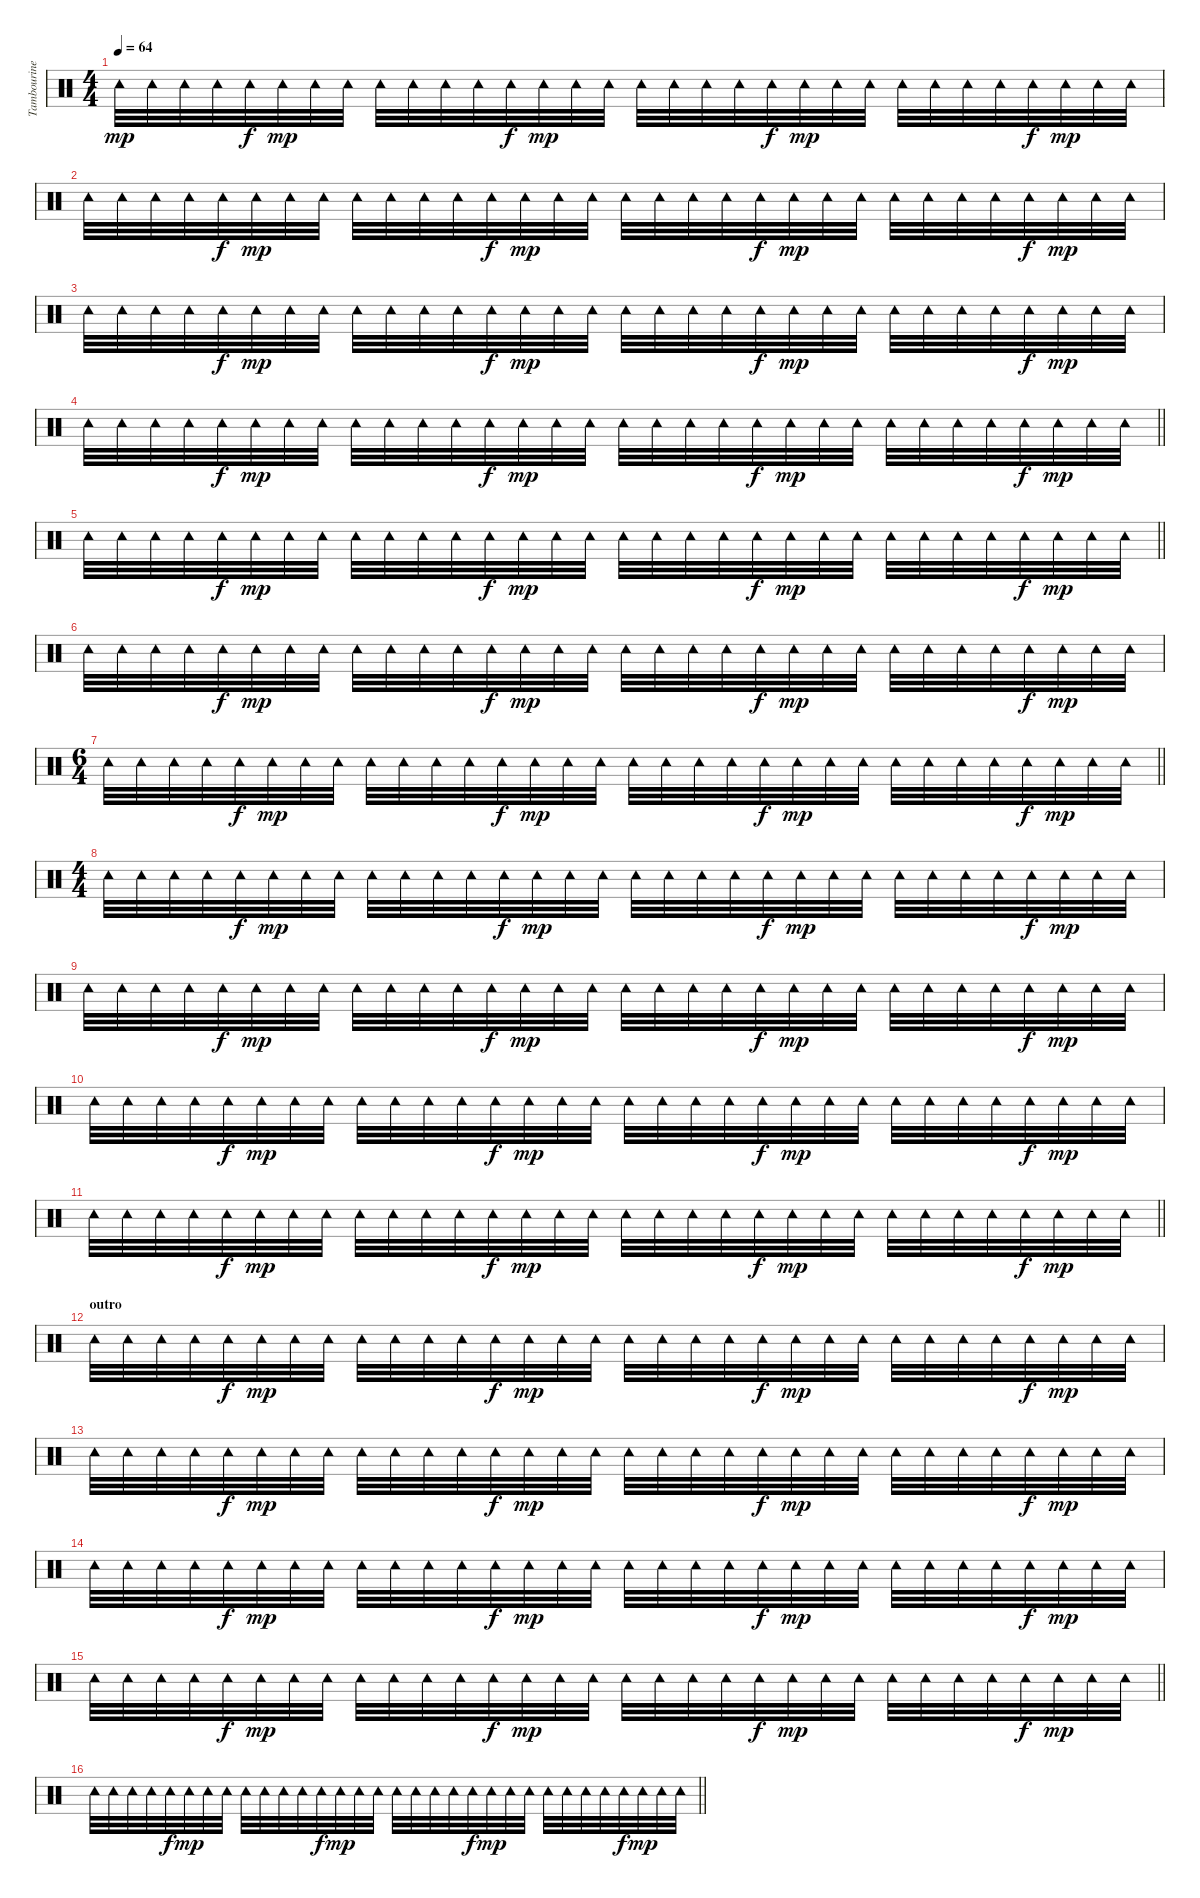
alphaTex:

\track ("Tambourine" "Tambourine") {instrument percussion}
\staff {score}
\articulation defaults
\ts (4 4)
\tempo 64
\clef neutral
\ks c "Tambourine (hit)".32{dy mp} "Tambourine (hit)".32 "Tambourine (hit)".32 "Tambourine (hit)".32 "Tambourine (hit)".32{dy f} "Tambourine (hit)".32{dy mp} "Tambourine (hit)".32 "Tambourine (hit)".32 "Tambourine (hit)".32 "Tambourine (hit)".32 "Tambourine (hit)".32 "Tambourine (hit)".32 "Tambourine (hit)".32{dy f} "Tambourine (hit)".32{dy mp} "Tambourine (hit)".32 "Tambourine (hit)".32 "Tambourine (hit)".32 "Tambourine (hit)".32 "Tambourine (hit)".32 "Tambourine (hit)".32 "Tambourine (hit)".32{dy f} "Tambourine (hit)".32{dy mp} "Tambourine (hit)".32 "Tambourine (hit)".32 "Tambourine (hit)".32 "Tambourine (hit)".32 "Tambourine (hit)".32 "Tambourine (hit)".32 "Tambourine (hit)".32{dy f} "Tambourine (hit)".32{dy mp} "Tambourine (hit)".32 "Tambourine (hit)".32
|
"Tambourine (hit)".32 "Tambourine (hit)".32 "Tambourine (hit)".32 "Tambourine (hit)".32 "Tambourine (hit)".32{dy f} "Tambourine (hit)".32{dy mp} "Tambourine (hit)".32 "Tambourine (hit)".32 "Tambourine (hit)".32 "Tambourine (hit)".32 "Tambourine (hit)".32 "Tambourine (hit)".32 "Tambourine (hit)".32{dy f} "Tambourine (hit)".32{dy mp} "Tambourine (hit)".32 "Tambourine (hit)".32 "Tambourine (hit)".32 "Tambourine (hit)".32 "Tambourine (hit)".32 "Tambourine (hit)".32 "Tambourine (hit)".32{dy f} "Tambourine (hit)".32{dy mp} "Tambourine (hit)".32 "Tambourine (hit)".32 "Tambourine (hit)".32 "Tambourine (hit)".32 "Tambourine (hit)".32 "Tambourine (hit)".32 "Tambourine (hit)".32{dy f} "Tambourine (hit)".32{dy mp} "Tambourine (hit)".32 "Tambourine (hit)".32 |
"Tambourine (hit)".32 "Tambourine (hit)".32 "Tambourine (hit)".32 "Tambourine (hit)".32 "Tambourine (hit)".32{dy f} "Tambourine (hit)".32{dy mp} "Tambourine (hit)".32 "Tambourine (hit)".32 "Tambourine (hit)".32 "Tambourine (hit)".32 "Tambourine (hit)".32 "Tambourine (hit)".32 "Tambourine (hit)".32{dy f} "Tambourine (hit)".32{dy mp} "Tambourine (hit)".32 "Tambourine (hit)".32 "Tambourine (hit)".32 "Tambourine (hit)".32 "Tambourine (hit)".32 "Tambourine (hit)".32 "Tambourine (hit)".32{dy f} "Tambourine (hit)".32{dy mp} "Tambourine (hit)".32 "Tambourine (hit)".32 "Tambourine (hit)".32 "Tambourine (hit)".32 "Tambourine (hit)".32 "Tambourine (hit)".32 "Tambourine (hit)".32{dy f} "Tambourine (hit)".32{dy mp} "Tambourine (hit)".32 "Tambourine (hit)".32 |
\barLineRight lightlight "Tambourine (hit)".32 "Tambourine (hit)".32 "Tambourine (hit)".32 "Tambourine (hit)".32 "Tambourine (hit)".32{dy f} "Tambourine (hit)".32{dy mp} "Tambourine (hit)".32 "Tambourine (hit)".32 "Tambourine (hit)".32 "Tambourine (hit)".32 "Tambourine (hit)".32 "Tambourine (hit)".32 "Tambourine (hit)".32{dy f} "Tambourine (hit)".32{dy mp} "Tambourine (hit)".32 "Tambourine (hit)".32 "Tambourine (hit)".32 "Tambourine (hit)".32 "Tambourine (hit)".32 "Tambourine (hit)".32 "Tambourine (hit)".32{dy f} "Tambourine (hit)".32{dy mp} "Tambourine (hit)".32 "Tambourine (hit)".32 "Tambourine (hit)".32 "Tambourine (hit)".32 "Tambourine (hit)".32 "Tambourine (hit)".32 "Tambourine (hit)".32{dy f} "Tambourine (hit)".32{dy mp} "Tambourine (hit)".32 "Tambourine (hit)".32
|
\barLineRight lightlight "Tambourine (hit)".32 "Tambourine (hit)".32 "Tambourine (hit)".32 "Tambourine (hit)".32 "Tambourine (hit)".32{dy f} "Tambourine (hit)".32{dy mp} "Tambourine (hit)".32 "Tambourine (hit)".32 "Tambourine (hit)".32 "Tambourine (hit)".32 "Tambourine (hit)".32 "Tambourine (hit)".32 "Tambourine (hit)".32{dy f} "Tambourine (hit)".32{dy mp} "Tambourine (hit)".32 "Tambourine (hit)".32 "Tambourine (hit)".32 "Tambourine (hit)".32 "Tambourine (hit)".32 "Tambourine (hit)".32 "Tambourine (hit)".32{dy f} "Tambourine (hit)".32{dy mp} "Tambourine (hit)".32 "Tambourine (hit)".32 "Tambourine (hit)".32 "Tambourine (hit)".32 "Tambourine (hit)".32 "Tambourine (hit)".32 "Tambourine (hit)".32{dy f} "Tambourine (hit)".32{dy mp} "Tambourine (hit)".32 "Tambourine (hit)".32
|
"Tambourine (hit)".32 "Tambourine (hit)".32 "Tambourine (hit)".32 "Tambourine (hit)".32 "Tambourine (hit)".32{dy f} "Tambourine (hit)".32{dy mp} "Tambourine (hit)".32 "Tambourine (hit)".32 "Tambourine (hit)".32 "Tambourine (hit)".32 "Tambourine (hit)".32 "Tambourine (hit)".32 "Tambourine (hit)".32{dy f} "Tambourine (hit)".32{dy mp} "Tambourine (hit)".32 "Tambourine (hit)".32 "Tambourine (hit)".32 "Tambourine (hit)".32 "Tambourine (hit)".32 "Tambourine (hit)".32 "Tambourine (hit)".32{dy f} "Tambourine (hit)".32{dy mp} "Tambourine (hit)".32 "Tambourine (hit)".32 "Tambourine (hit)".32 "Tambourine (hit)".32 "Tambourine (hit)".32 "Tambourine (hit)".32 "Tambourine (hit)".32{dy f} "Tambourine (hit)".32{dy mp} "Tambourine (hit)".32 "Tambourine (hit)".32 |
\ts (6 4)
\barLineRight lightlight "Tambourine (hit)".32 "Tambourine (hit)".32 "Tambourine (hit)".32 "Tambourine (hit)".32 "Tambourine (hit)".32{dy f} "Tambourine (hit)".32{dy mp} "Tambourine (hit)".32 "Tambourine (hit)".32 "Tambourine (hit)".32 "Tambourine (hit)".32 "Tambourine (hit)".32 "Tambourine (hit)".32 "Tambourine (hit)".32{dy f} "Tambourine (hit)".32{dy mp} "Tambourine (hit)".32 "Tambourine (hit)".32 "Tambourine (hit)".32 "Tambourine (hit)".32 "Tambourine (hit)".32 "Tambourine (hit)".32 "Tambourine (hit)".32{dy f} "Tambourine (hit)".32{dy mp} "Tambourine (hit)".32 "Tambourine (hit)".32 "Tambourine (hit)".32 "Tambourine (hit)".32 "Tambourine (hit)".32 "Tambourine (hit)".32 "Tambourine (hit)".32{dy f} "Tambourine (hit)".32{dy mp} "Tambourine (hit)".32 "Tambourine (hit)".32
|
\ts (4 4)
"Tambourine (hit)".32 "Tambourine (hit)".32 "Tambourine (hit)".32 "Tambourine (hit)".32 "Tambourine (hit)".32{dy f} "Tambourine (hit)".32{dy mp} "Tambourine (hit)".32 "Tambourine (hit)".32 "Tambourine (hit)".32 "Tambourine (hit)".32 "Tambourine (hit)".32 "Tambourine (hit)".32 "Tambourine (hit)".32{dy f} "Tambourine (hit)".32{dy mp} "Tambourine (hit)".32 "Tambourine (hit)".32 "Tambourine (hit)".32 "Tambourine (hit)".32 "Tambourine (hit)".32 "Tambourine (hit)".32 "Tambourine (hit)".32{dy f} "Tambourine (hit)".32{dy mp} "Tambourine (hit)".32 "Tambourine (hit)".32 "Tambourine (hit)".32 "Tambourine (hit)".32 "Tambourine (hit)".32 "Tambourine (hit)".32 "Tambourine (hit)".32{dy f} "Tambourine (hit)".32{dy mp} "Tambourine (hit)".32 "Tambourine (hit)".32 |
"Tambourine (hit)".32 "Tambourine (hit)".32 "Tambourine (hit)".32 "Tambourine (hit)".32 "Tambourine (hit)".32{dy f} "Tambourine (hit)".32{dy mp} "Tambourine (hit)".32 "Tambourine (hit)".32 "Tambourine (hit)".32 "Tambourine (hit)".32 "Tambourine (hit)".32 "Tambourine (hit)".32 "Tambourine (hit)".32{dy f} "Tambourine (hit)".32{dy mp} "Tambourine (hit)".32 "Tambourine (hit)".32 "Tambourine (hit)".32 "Tambourine (hit)".32 "Tambourine (hit)".32 "Tambourine (hit)".32 "Tambourine (hit)".32{dy f} "Tambourine (hit)".32{dy mp} "Tambourine (hit)".32 "Tambourine (hit)".32 "Tambourine (hit)".32 "Tambourine (hit)".32 "Tambourine (hit)".32 "Tambourine (hit)".32 "Tambourine (hit)".32{dy f} "Tambourine (hit)".32{dy mp} "Tambourine (hit)".32 "Tambourine (hit)".32 |
"Tambourine (hit)".32 "Tambourine (hit)".32 "Tambourine (hit)".32 "Tambourine (hit)".32 "Tambourine (hit)".32{dy f} "Tambourine (hit)".32{dy mp} "Tambourine (hit)".32 "Tambourine (hit)".32 "Tambourine (hit)".32 "Tambourine (hit)".32 "Tambourine (hit)".32 "Tambourine (hit)".32 "Tambourine (hit)".32{dy f} "Tambourine (hit)".32{dy mp} "Tambourine (hit)".32 "Tambourine (hit)".32 "Tambourine (hit)".32 "Tambourine (hit)".32 "Tambourine (hit)".32 "Tambourine (hit)".32 "Tambourine (hit)".32{dy f} "Tambourine (hit)".32{dy mp} "Tambourine (hit)".32 "Tambourine (hit)".32 "Tambourine (hit)".32 "Tambourine (hit)".32 "Tambourine (hit)".32 "Tambourine (hit)".32 "Tambourine (hit)".32{dy f} "Tambourine (hit)".32{dy mp} "Tambourine (hit)".32 "Tambourine (hit)".32 |
\barLineRight lightlight "Tambourine (hit)".32 "Tambourine (hit)".32 "Tambourine (hit)".32 "Tambourine (hit)".32 "Tambourine (hit)".32{dy f} "Tambourine (hit)".32{dy mp} "Tambourine (hit)".32 "Tambourine (hit)".32 "Tambourine (hit)".32 "Tambourine (hit)".32 "Tambourine (hit)".32 "Tambourine (hit)".32 "Tambourine (hit)".32{dy f} "Tambourine (hit)".32{dy mp} "Tambourine (hit)".32 "Tambourine (hit)".32 "Tambourine (hit)".32 "Tambourine (hit)".32 "Tambourine (hit)".32 "Tambourine (hit)".32 "Tambourine (hit)".32{dy f} "Tambourine (hit)".32{dy mp} "Tambourine (hit)".32 "Tambourine (hit)".32 "Tambourine (hit)".32 "Tambourine (hit)".32 "Tambourine (hit)".32 "Tambourine (hit)".32 "Tambourine (hit)".32{dy f} "Tambourine (hit)".32{dy mp} "Tambourine (hit)".32 "Tambourine (hit)".32
|
\section ("" "outro")
"Tambourine (hit)".32 "Tambourine (hit)".32 "Tambourine (hit)".32 "Tambourine (hit)".32 "Tambourine (hit)".32{dy f} "Tambourine (hit)".32{dy mp} "Tambourine (hit)".32 "Tambourine (hit)".32 "Tambourine (hit)".32 "Tambourine (hit)".32 "Tambourine (hit)".32 "Tambourine (hit)".32 "Tambourine (hit)".32{dy f} "Tambourine (hit)".32{dy mp} "Tambourine (hit)".32 "Tambourine (hit)".32 "Tambourine (hit)".32 "Tambourine (hit)".32 "Tambourine (hit)".32 "Tambourine (hit)".32 "Tambourine (hit)".32{dy f} "Tambourine (hit)".32{dy mp} "Tambourine (hit)".32 "Tambourine (hit)".32 "Tambourine (hit)".32 "Tambourine (hit)".32 "Tambourine (hit)".32 "Tambourine (hit)".32 "Tambourine (hit)".32{dy f} "Tambourine (hit)".32{dy mp} "Tambourine (hit)".32 "Tambourine (hit)".32 |
"Tambourine (hit)".32 "Tambourine (hit)".32 "Tambourine (hit)".32 "Tambourine (hit)".32 "Tambourine (hit)".32{dy f} "Tambourine (hit)".32{dy mp} "Tambourine (hit)".32 "Tambourine (hit)".32 "Tambourine (hit)".32 "Tambourine (hit)".32 "Tambourine (hit)".32 "Tambourine (hit)".32 "Tambourine (hit)".32{dy f} "Tambourine (hit)".32{dy mp} "Tambourine (hit)".32 "Tambourine (hit)".32 "Tambourine (hit)".32 "Tambourine (hit)".32 "Tambourine (hit)".32 "Tambourine (hit)".32 "Tambourine (hit)".32{dy f} "Tambourine (hit)".32{dy mp} "Tambourine (hit)".32 "Tambourine (hit)".32 "Tambourine (hit)".32 "Tambourine (hit)".32 "Tambourine (hit)".32 "Tambourine (hit)".32 "Tambourine (hit)".32{dy f} "Tambourine (hit)".32{dy mp} "Tambourine (hit)".32 "Tambourine (hit)".32 |
"Tambourine (hit)".32 "Tambourine (hit)".32 "Tambourine (hit)".32 "Tambourine (hit)".32 "Tambourine (hit)".32{dy f} "Tambourine (hit)".32{dy mp} "Tambourine (hit)".32 "Tambourine (hit)".32 "Tambourine (hit)".32 "Tambourine (hit)".32 "Tambourine (hit)".32 "Tambourine (hit)".32 "Tambourine (hit)".32{dy f} "Tambourine (hit)".32{dy mp} "Tambourine (hit)".32 "Tambourine (hit)".32 "Tambourine (hit)".32 "Tambourine (hit)".32 "Tambourine (hit)".32 "Tambourine (hit)".32 "Tambourine (hit)".32{dy f} "Tambourine (hit)".32{dy mp} "Tambourine (hit)".32 "Tambourine (hit)".32 "Tambourine (hit)".32 "Tambourine (hit)".32 "Tambourine (hit)".32 "Tambourine (hit)".32 "Tambourine (hit)".32{dy f} "Tambourine (hit)".32{dy mp} "Tambourine (hit)".32 "Tambourine (hit)".32 |
\barLineRight lightlight "Tambourine (hit)".32 "Tambourine (hit)".32 "Tambourine (hit)".32 "Tambourine (hit)".32 "Tambourine (hit)".32{dy f} "Tambourine (hit)".32{dy mp} "Tambourine (hit)".32 "Tambourine (hit)".32 "Tambourine (hit)".32 "Tambourine (hit)".32 "Tambourine (hit)".32 "Tambourine (hit)".32 "Tambourine (hit)".32{dy f} "Tambourine (hit)".32{dy mp} "Tambourine (hit)".32 "Tambourine (hit)".32 "Tambourine (hit)".32 "Tambourine (hit)".32 "Tambourine (hit)".32 "Tambourine (hit)".32 "Tambourine (hit)".32{dy f} "Tambourine (hit)".32{dy mp} "Tambourine (hit)".32 "Tambourine (hit)".32 "Tambourine (hit)".32 "Tambourine (hit)".32 "Tambourine (hit)".32 "Tambourine (hit)".32 "Tambourine (hit)".32{dy f} "Tambourine (hit)".32{dy mp} "Tambourine (hit)".32 "Tambourine (hit)".32
|
\barLineRight lightlight "Tambourine (hit)".32 "Tambourine (hit)".32 "Tambourine (hit)".32 "Tambourine (hit)".32 "Tambourine (hit)".32{dy f} "Tambourine (hit)".32{dy mp} "Tambourine (hit)".32 "Tambourine (hit)".32 "Tambourine (hit)".32 "Tambourine (hit)".32 "Tambourine (hit)".32 "Tambourine (hit)".32 "Tambourine (hit)".32{dy f} "Tambourine (hit)".32{dy mp} "Tambourine (hit)".32 "Tambourine (hit)".32 "Tambourine (hit)".32 "Tambourine (hit)".32 "Tambourine (hit)".32 "Tambourine (hit)".32 "Tambourine (hit)".32{dy f} "Tambourine (hit)".32{dy mp} "Tambourine (hit)".32 "Tambourine (hit)".32 "Tambourine (hit)".32 "Tambourine (hit)".32 "Tambourine (hit)".32 "Tambourine (hit)".32 "Tambourine (hit)".32{dy f} "Tambourine (hit)".32{dy mp} "Tambourine (hit)".32 "Tambourine (hit)".32
